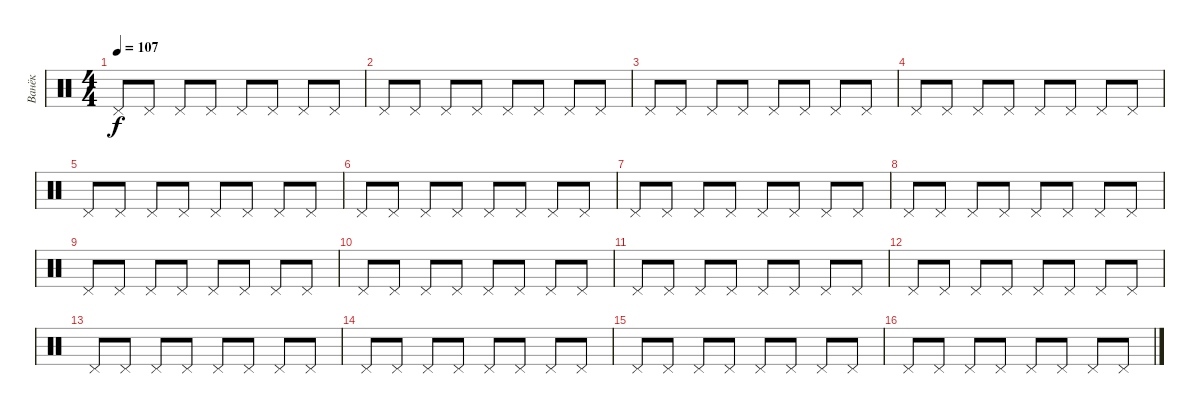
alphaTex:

\track ("Ванёк" "Ванёк") {instrument percussion}
\staff {score}
\articulation defaults
\ts (4 4)
\tempo 107
\clef neutral
\ks c "Pedal Hi-Hat (hit)".8{dy f} "Pedal Hi-Hat (hit)".8 "Pedal Hi-Hat (hit)".8 "Pedal Hi-Hat (hit)".8 "Pedal Hi-Hat (hit)".8 "Pedal Hi-Hat (hit)".8 "Pedal Hi-Hat (hit)".8 "Pedal Hi-Hat (hit)".8
|
"Pedal Hi-Hat (hit)".8 "Pedal Hi-Hat (hit)".8 "Pedal Hi-Hat (hit)".8 "Pedal Hi-Hat (hit)".8 "Pedal Hi-Hat (hit)".8 "Pedal Hi-Hat (hit)".8 "Pedal Hi-Hat (hit)".8 "Pedal Hi-Hat (hit)".8 |
"Pedal Hi-Hat (hit)".8 "Pedal Hi-Hat (hit)".8 "Pedal Hi-Hat (hit)".8 "Pedal Hi-Hat (hit)".8 "Pedal Hi-Hat (hit)".8 "Pedal Hi-Hat (hit)".8 "Pedal Hi-Hat (hit)".8 "Pedal Hi-Hat (hit)".8 |
"Pedal Hi-Hat (hit)".8 "Pedal Hi-Hat (hit)".8 "Pedal Hi-Hat (hit)".8 "Pedal Hi-Hat (hit)".8 "Pedal Hi-Hat (hit)".8 "Pedal Hi-Hat (hit)".8 "Pedal Hi-Hat (hit)".8 "Pedal Hi-Hat (hit)".8 |
"Pedal Hi-Hat (hit)".8 "Pedal Hi-Hat (hit)".8 "Pedal Hi-Hat (hit)".8 "Pedal Hi-Hat (hit)".8 "Pedal Hi-Hat (hit)".8 "Pedal Hi-Hat (hit)".8 "Pedal Hi-Hat (hit)".8 "Pedal Hi-Hat (hit)".8 |
"Pedal Hi-Hat (hit)".8 "Pedal Hi-Hat (hit)".8 "Pedal Hi-Hat (hit)".8 "Pedal Hi-Hat (hit)".8 "Pedal Hi-Hat (hit)".8 "Pedal Hi-Hat (hit)".8 "Pedal Hi-Hat (hit)".8 "Pedal Hi-Hat (hit)".8 |
"Pedal Hi-Hat (hit)".8 "Pedal Hi-Hat (hit)".8 "Pedal Hi-Hat (hit)".8 "Pedal Hi-Hat (hit)".8 "Pedal Hi-Hat (hit)".8 "Pedal Hi-Hat (hit)".8 "Pedal Hi-Hat (hit)".8 "Pedal Hi-Hat (hit)".8 |
"Pedal Hi-Hat (hit)".8 "Pedal Hi-Hat (hit)".8 "Pedal Hi-Hat (hit)".8 "Pedal Hi-Hat (hit)".8 "Pedal Hi-Hat (hit)".8 "Pedal Hi-Hat (hit)".8 "Pedal Hi-Hat (hit)".8 "Pedal Hi-Hat (hit)".8 |
"Pedal Hi-Hat (hit)".8 "Pedal Hi-Hat (hit)".8 "Pedal Hi-Hat (hit)".8 "Pedal Hi-Hat (hit)".8 "Pedal Hi-Hat (hit)".8 "Pedal Hi-Hat (hit)".8 "Pedal Hi-Hat (hit)".8 "Pedal Hi-Hat (hit)".8 |
"Pedal Hi-Hat (hit)".8 "Pedal Hi-Hat (hit)".8 "Pedal Hi-Hat (hit)".8 "Pedal Hi-Hat (hit)".8 "Pedal Hi-Hat (hit)".8 "Pedal Hi-Hat (hit)".8 "Pedal Hi-Hat (hit)".8 "Pedal Hi-Hat (hit)".8 |
"Pedal Hi-Hat (hit)".8 "Pedal Hi-Hat (hit)".8 "Pedal Hi-Hat (hit)".8 "Pedal Hi-Hat (hit)".8 "Pedal Hi-Hat (hit)".8 "Pedal Hi-Hat (hit)".8 "Pedal Hi-Hat (hit)".8 "Pedal Hi-Hat (hit)".8 |
"Pedal Hi-Hat (hit)".8 "Pedal Hi-Hat (hit)".8 "Pedal Hi-Hat (hit)".8 "Pedal Hi-Hat (hit)".8 "Pedal Hi-Hat (hit)".8 "Pedal Hi-Hat (hit)".8 "Pedal Hi-Hat (hit)".8 "Pedal Hi-Hat (hit)".8 |
"Pedal Hi-Hat (hit)".8 "Pedal Hi-Hat (hit)".8 "Pedal Hi-Hat (hit)".8 "Pedal Hi-Hat (hit)".8 "Pedal Hi-Hat (hit)".8 "Pedal Hi-Hat (hit)".8 "Pedal Hi-Hat (hit)".8 "Pedal Hi-Hat (hit)".8 |
"Pedal Hi-Hat (hit)".8 "Pedal Hi-Hat (hit)".8 "Pedal Hi-Hat (hit)".8 "Pedal Hi-Hat (hit)".8 "Pedal Hi-Hat (hit)".8 "Pedal Hi-Hat (hit)".8 "Pedal Hi-Hat (hit)".8 "Pedal Hi-Hat (hit)".8 |
"Pedal Hi-Hat (hit)".8 "Pedal Hi-Hat (hit)".8 "Pedal Hi-Hat (hit)".8 "Pedal Hi-Hat (hit)".8 "Pedal Hi-Hat (hit)".8 "Pedal Hi-Hat (hit)".8 "Pedal Hi-Hat (hit)".8 "Pedal Hi-Hat (hit)".8 |
"Pedal Hi-Hat (hit)".8 "Pedal Hi-Hat (hit)".8 "Pedal Hi-Hat (hit)".8 "Pedal Hi-Hat (hit)".8 "Pedal Hi-Hat (hit)".8 "Pedal Hi-Hat (hit)".8 "Pedal Hi-Hat (hit)".8 "Pedal Hi-Hat (hit)".8
